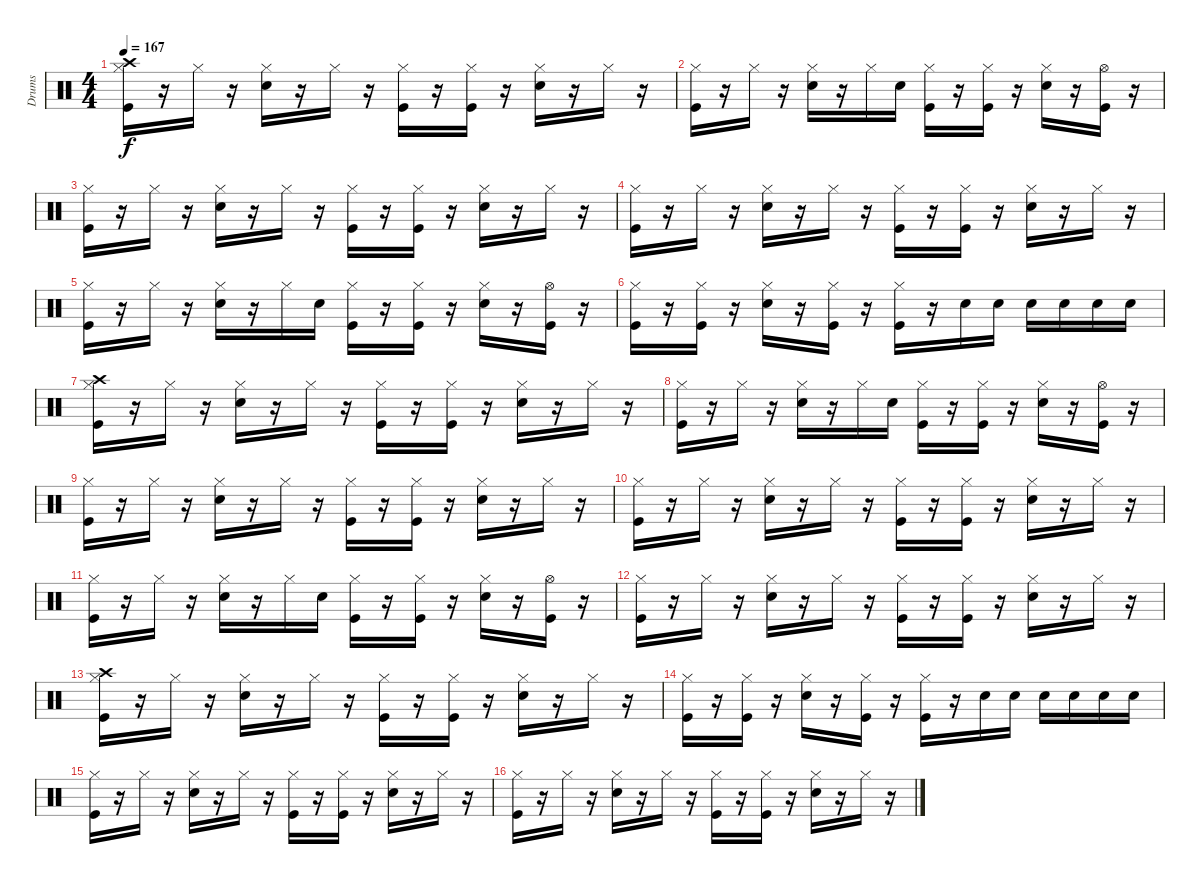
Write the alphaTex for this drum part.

\track ("Drums" "Drums") {instrument percussion}
\staff {score}
\articulation defaults
\ts (4 4)
\tempo 167
\clef neutral
\ks c
("Kick (hit)" "Hi-Hat (closed)" "Crash high (hit)").16{dy f} r.16 "Hi-Hat (closed)".16 r.16 ("Snare (hit) 2" "Hi-Hat (closed)").16 r.16 "Hi-Hat (closed)".16 r.16 ("Kick (hit)" "Hi-Hat (closed)").16 r.16 ("Kick (hit)" "Hi-Hat (closed)").16 r.16 ("Snare (hit) 2" "Hi-Hat (closed)").16 r.16 "Hi-Hat (closed)".16 r.16 |
("Kick (hit)" "Hi-Hat (closed)").16 r.16 "Hi-Hat (closed)".16 r.16 ("Snare (hit) 2" "Hi-Hat (closed)").16 r.16 "Hi-Hat (closed)".16 "Snare (hit) 2".16 ("Kick (hit)" "Hi-Hat (closed)").16 r.16 ("Kick (hit)" "Hi-Hat (closed)").16 r.16 ("Snare (hit) 2" "Hi-Hat (closed)").16 r.16 ("Kick (hit)" "Hi-Hat (open)").16 r.16 |
("Kick (hit)" "Hi-Hat (closed)").16 r.16 "Hi-Hat (closed)".16 r.16 ("Snare (hit) 2" "Hi-Hat (closed)").16 r.16 "Hi-Hat (closed)".16 r.16 ("Kick (hit)" "Hi-Hat (closed)").16 r.16 ("Kick (hit)" "Hi-Hat (closed)").16 r.16 ("Snare (hit) 2" "Hi-Hat (closed)").16 r.16 "Hi-Hat (closed)".16 r.16 |
("Kick (hit)" "Hi-Hat (closed)").16 r.16 "Hi-Hat (closed)".16 r.16 ("Snare (hit) 2" "Hi-Hat (closed)").16 r.16 "Hi-Hat (closed)".16 r.16 ("Kick (hit)" "Hi-Hat (closed)").16 r.16 ("Kick (hit)" "Hi-Hat (closed)").16 r.16 ("Snare (hit) 2" "Hi-Hat (closed)").16 r.16 "Hi-Hat (closed)".16 r.16 |
("Kick (hit)" "Hi-Hat (closed)").16 r.16 "Hi-Hat (closed)".16 r.16 ("Snare (hit) 2" "Hi-Hat (closed)").16 r.16 "Hi-Hat (closed)".16 "Snare (hit) 2".16 ("Kick (hit)" "Hi-Hat (closed)").16 r.16 ("Kick (hit)" "Hi-Hat (closed)").16 r.16 ("Snare (hit) 2" "Hi-Hat (closed)").16 r.16 ("Kick (hit)" "Hi-Hat (open)").16 r.16 |
("Kick (hit)" "Hi-Hat (closed)").16 r.16 ("Kick (hit)" "Hi-Hat (closed)").16 r.16 ("Snare (hit) 2" "Hi-Hat (closed)").16 r.16 ("Kick (hit)" "Hi-Hat (closed)").16 r.16 ("Kick (hit)" "Hi-Hat (closed)").16 r.16 "Snare (hit) 2".16 "Snare (hit) 2".16 "Snare (hit) 2".16 "Snare (hit) 2".16 "Snare (hit) 2".16 "Snare (hit) 2".16 |
("Kick (hit)" "Hi-Hat (closed)" "Crash high (hit)").16 r.16 "Hi-Hat (closed)".16 r.16 ("Snare (hit) 2" "Hi-Hat (closed)").16 r.16 "Hi-Hat (closed)".16 r.16 ("Kick (hit)" "Hi-Hat (closed)").16 r.16 ("Kick (hit)" "Hi-Hat (closed)").16 r.16 ("Snare (hit) 2" "Hi-Hat (closed)").16 r.16 "Hi-Hat (closed)".16 r.16 |
("Kick (hit)" "Hi-Hat (closed)").16 r.16 "Hi-Hat (closed)".16 r.16 ("Snare (hit) 2" "Hi-Hat (closed)").16 r.16 "Hi-Hat (closed)".16 "Snare (hit) 2".16 ("Kick (hit)" "Hi-Hat (closed)").16 r.16 ("Kick (hit)" "Hi-Hat (closed)").16 r.16 ("Snare (hit) 2" "Hi-Hat (closed)").16 r.16 ("Kick (hit)" "Hi-Hat (open)").16 r.16 |
("Kick (hit)" "Hi-Hat (closed)").16 r.16 "Hi-Hat (closed)".16 r.16 ("Snare (hit) 2" "Hi-Hat (closed)").16 r.16 "Hi-Hat (closed)".16 r.16 ("Kick (hit)" "Hi-Hat (closed)").16 r.16 ("Kick (hit)" "Hi-Hat (closed)").16 r.16 ("Snare (hit) 2" "Hi-Hat (closed)").16 r.16 "Hi-Hat (closed)".16 r.16 |
("Kick (hit)" "Hi-Hat (closed)").16 r.16 "Hi-Hat (closed)".16 r.16 ("Snare (hit) 2" "Hi-Hat (closed)").16 r.16 "Hi-Hat (closed)".16 r.16 ("Kick (hit)" "Hi-Hat (closed)").16 r.16 ("Kick (hit)" "Hi-Hat (closed)").16 r.16 ("Snare (hit) 2" "Hi-Hat (closed)").16 r.16 "Hi-Hat (closed)".16 r.16 |
("Kick (hit)" "Hi-Hat (closed)").16 r.16 "Hi-Hat (closed)".16 r.16 ("Snare (hit) 2" "Hi-Hat (closed)").16 r.16 "Hi-Hat (closed)".16 "Snare (hit) 2".16 ("Kick (hit)" "Hi-Hat (closed)").16 r.16 ("Kick (hit)" "Hi-Hat (closed)").16 r.16 ("Snare (hit) 2" "Hi-Hat (closed)").16 r.16 ("Kick (hit)" "Hi-Hat (open)").16 r.16 |
("Kick (hit)" "Hi-Hat (closed)").16 r.16 "Hi-Hat (closed)".16 r.16 ("Snare (hit) 2" "Hi-Hat (closed)").16 r.16 "Hi-Hat (closed)".16 r.16 ("Kick (hit)" "Hi-Hat (closed)").16 r.16 ("Kick (hit)" "Hi-Hat (closed)").16 r.16 ("Snare (hit) 2" "Hi-Hat (closed)").16 r.16 "Hi-Hat (closed)".16 r.16 |
("Kick (hit)" "Hi-Hat (closed)" "Crash high (hit)").16 r.16 "Hi-Hat (closed)".16 r.16 ("Snare (hit) 2" "Hi-Hat (closed)").16 r.16 "Hi-Hat (closed)".16 r.16 ("Kick (hit)" "Hi-Hat (closed)").16 r.16 ("Kick (hit)" "Hi-Hat (closed)").16 r.16 ("Snare (hit) 2" "Hi-Hat (closed)").16 r.16 "Hi-Hat (closed)".16 r.16 |
("Kick (hit)" "Hi-Hat (closed)").16 r.16 ("Kick (hit)" "Hi-Hat (closed)").16 r.16 ("Snare (hit) 2" "Hi-Hat (closed)").16 r.16 ("Kick (hit)" "Hi-Hat (closed)").16 r.16 ("Kick (hit)" "Hi-Hat (closed)").16 r.16 "Snare (hit) 2".16 "Snare (hit) 2".16 "Snare (hit) 2".16 "Snare (hit) 2".16 "Snare (hit) 2".16 "Snare (hit) 2".16 |
("Kick (hit)" "Hi-Hat (closed)").16 r.16 "Hi-Hat (closed)".16 r.16 ("Snare (hit) 2" "Hi-Hat (closed)").16 r.16 "Hi-Hat (closed)".16 r.16 ("Kick (hit)" "Hi-Hat (closed)").16 r.16 ("Kick (hit)" "Hi-Hat (closed)").16 r.16 ("Snare (hit) 2" "Hi-Hat (closed)").16 r.16 "Hi-Hat (closed)".16 r.16 |
("Kick (hit)" "Hi-Hat (closed)").16 r.16 "Hi-Hat (closed)".16 r.16 ("Snare (hit) 2" "Hi-Hat (closed)").16 r.16 "Hi-Hat (closed)".16 r.16 ("Kick (hit)" "Hi-Hat (closed)").16 r.16 ("Kick (hit)" "Hi-Hat (closed)").16 r.16 ("Snare (hit) 2" "Hi-Hat (closed)").16 r.16 "Hi-Hat (closed)".16 r.16
